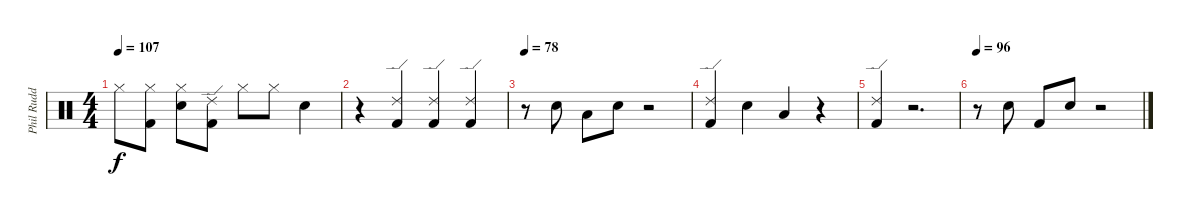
\track ("Phil Rudd" "Phil Rudd") {instrument percussion}
\staff {score}
\articulation defaults
\ts (4 4)
\tempo 107
\clef neutral
\ks c "Hi-Hat (closed)".8{dy f}
("Hi-Hat (closed)" "Kick (hit) 2").8 ("Hi-Hat (closed)" "Snare (hit) 2").8 ("Kick (hit) 2" "Ride (edge) 2").8 "Hi-Hat (closed)".8 "Hi-Hat (closed)".8 "Snare (hit) 2".4 |
r.4 ("Kick (hit) 2" "Ride (edge) 2").4 ("Kick (hit) 2" "Ride (edge) 2").4 ("Kick (hit) 2" "Ride (edge) 2").4 |
\tempo 78
r.8 "Snare (hit) 2".8 "Low Tom (hit)".8 "Snare (hit) 2".8 r.2 |
("Kick (hit) 2" "Ride (edge) 2").4 "Snare (hit) 2".4 "Low Floor Tom (hit)".4 r.4 |
("Kick (hit) 2" "Ride (edge) 2").4 r.2{d} |
\tempo 96
r.8 "Snare (hit) 2".8 "Kick (hit) 2".8 "Snare (hit) 2".8 r.2
